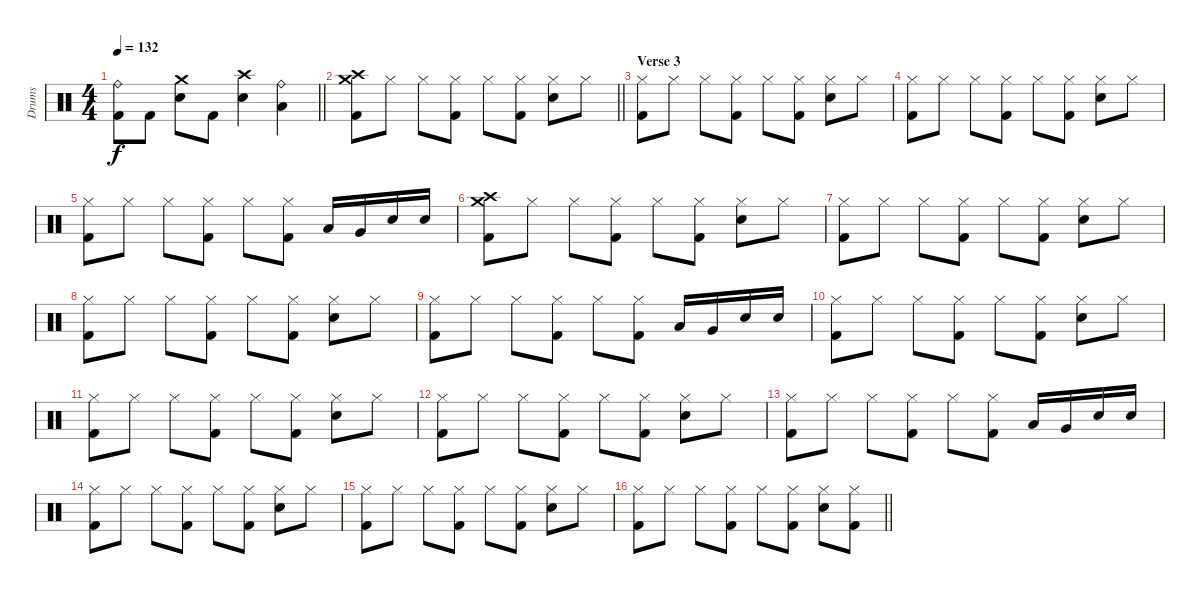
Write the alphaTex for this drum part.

\track ("Drums" "Drums") {instrument percussion}
\staff {score}
\articulation defaults
\ts (4 4)
\tempo 132
\clef neutral
\barLineRight lightlight
\ks c
("Kick (hit) 2" "Ride (bell)").8{dy f} "Kick (hit) 2".8 ("Electric Snare (hit)" "Crash medium (hit)").8 "Kick (hit) 2".8 ("Electric Snare (hit)" "Crash high (hit)").4 ("Low Tom (hit)" "Ride (bell)").4 |
\barLineRight lightlight
("Kick (hit) 2" "Crash high (hit)" "Crash medium (hit)").8 "Hi-Hat (closed)".8 "Hi-Hat (closed)".8 ("Kick (hit) 2" "Hi-Hat (closed)").8 "Hi-Hat (closed)".8 ("Kick (hit) 2" "Hi-Hat (closed)").8 ("Electric Snare (hit)" "Hi-Hat (closed)").8 "Hi-Hat (closed)".8 |
\section ("" "Verse 3")
("Kick (hit) 2" "Hi-Hat (closed)").8 "Hi-Hat (closed)".8 "Hi-Hat (closed)".8 ("Kick (hit) 2" "Hi-Hat (closed)").8 "Hi-Hat (closed)".8 ("Kick (hit) 2" "Hi-Hat (closed)").8 ("Electric Snare (hit)" "Hi-Hat (closed)").8 "Hi-Hat (closed)".8 |
("Kick (hit) 2" "Hi-Hat (closed)").8 "Hi-Hat (closed)".8 "Hi-Hat (closed)".8 ("Kick (hit) 2" "Hi-Hat (closed)").8 "Hi-Hat (closed)".8 ("Kick (hit) 2" "Hi-Hat (closed)").8 ("Electric Snare (hit)" "Hi-Hat (closed)").8 "Hi-Hat (closed)".8 |
("Kick (hit) 2" "Hi-Hat (closed)").8 "Hi-Hat (closed)".8 "Hi-Hat (closed)".8 ("Kick (hit) 2" "Hi-Hat (closed)").8 "Hi-Hat (closed)".8 ("Kick (hit) 2" "Hi-Hat (closed)").8 "Low Tom (hit)".16 "Very Low Tom (hit)".16 "Electric Snare (hit)".16 "Electric Snare (hit)".16 |
("Kick (hit) 2" "Crash high (hit)" "Crash medium (hit)").8 "Hi-Hat (closed)".8 "Hi-Hat (closed)".8 ("Kick (hit) 2" "Hi-Hat (closed)").8 "Hi-Hat (closed)".8 ("Kick (hit) 2" "Hi-Hat (closed)").8 ("Electric Snare (hit)" "Hi-Hat (closed)").8 "Hi-Hat (closed)".8 |
("Kick (hit) 2" "Hi-Hat (closed)").8 "Hi-Hat (closed)".8 "Hi-Hat (closed)".8 ("Kick (hit) 2" "Hi-Hat (closed)").8 "Hi-Hat (closed)".8 ("Kick (hit) 2" "Hi-Hat (closed)").8 ("Electric Snare (hit)" "Hi-Hat (closed)").8 "Hi-Hat (closed)".8 |
("Kick (hit) 2" "Hi-Hat (closed)").8 "Hi-Hat (closed)".8 "Hi-Hat (closed)".8 ("Kick (hit) 2" "Hi-Hat (closed)").8 "Hi-Hat (closed)".8 ("Kick (hit) 2" "Hi-Hat (closed)").8 ("Electric Snare (hit)" "Hi-Hat (closed)").8 "Hi-Hat (closed)".8 |
("Kick (hit) 2" "Hi-Hat (closed)").8 "Hi-Hat (closed)".8 "Hi-Hat (closed)".8 ("Kick (hit) 2" "Hi-Hat (closed)").8 "Hi-Hat (closed)".8 ("Kick (hit) 2" "Hi-Hat (closed)").8 "Low Tom (hit)".16 "Very Low Tom (hit)".16 "Electric Snare (hit)".16 "Electric Snare (hit)".16 |
("Kick (hit) 2" "Hi-Hat (closed)").8 "Hi-Hat (closed)".8 "Hi-Hat (closed)".8 ("Kick (hit) 2" "Hi-Hat (closed)").8 "Hi-Hat (closed)".8 ("Kick (hit) 2" "Hi-Hat (closed)").8 ("Electric Snare (hit)" "Hi-Hat (closed)").8 "Hi-Hat (closed)".8 |
("Kick (hit) 2" "Hi-Hat (closed)").8 "Hi-Hat (closed)".8 "Hi-Hat (closed)".8 ("Kick (hit) 2" "Hi-Hat (closed)").8 "Hi-Hat (closed)".8 ("Kick (hit) 2" "Hi-Hat (closed)").8 ("Electric Snare (hit)" "Hi-Hat (closed)").8 "Hi-Hat (closed)".8 |
("Kick (hit) 2" "Hi-Hat (closed)").8 "Hi-Hat (closed)".8 "Hi-Hat (closed)".8 ("Kick (hit) 2" "Hi-Hat (closed)").8 "Hi-Hat (closed)".8 ("Kick (hit) 2" "Hi-Hat (closed)").8 ("Electric Snare (hit)" "Hi-Hat (closed)").8 "Hi-Hat (closed)".8 |
("Kick (hit) 2" "Hi-Hat (closed)").8 "Hi-Hat (closed)".8 "Hi-Hat (closed)".8 ("Kick (hit) 2" "Hi-Hat (closed)").8 "Hi-Hat (closed)".8 ("Kick (hit) 2" "Hi-Hat (closed)").8 "Low Tom (hit)".16 "Very Low Tom (hit)".16 "Electric Snare (hit)".16 "Electric Snare (hit)".16 |
("Kick (hit) 2" "Hi-Hat (closed)").8 "Hi-Hat (closed)".8 "Hi-Hat (closed)".8 ("Kick (hit) 2" "Hi-Hat (closed)").8 "Hi-Hat (closed)".8 ("Kick (hit) 2" "Hi-Hat (closed)").8 ("Electric Snare (hit)" "Hi-Hat (closed)").8 "Hi-Hat (closed)".8 |
("Kick (hit) 2" "Hi-Hat (closed)").8 "Hi-Hat (closed)".8 "Hi-Hat (closed)".8 ("Kick (hit) 2" "Hi-Hat (closed)").8 "Hi-Hat (closed)".8 ("Kick (hit) 2" "Hi-Hat (closed)").8 ("Electric Snare (hit)" "Hi-Hat (closed)").8 "Hi-Hat (closed)".8 |
\barLineRight lightlight
("Kick (hit) 2" "Hi-Hat (closed)").8 "Hi-Hat (closed)".8 "Hi-Hat (closed)".8 ("Kick (hit) 2" "Hi-Hat (closed)").8 "Hi-Hat (closed)".8 ("Kick (hit) 2" "Hi-Hat (closed)").8 ("Electric Snare (hit)" "Hi-Hat (closed)").8 ("Kick (hit) 2" "Hi-Hat (closed)").8
